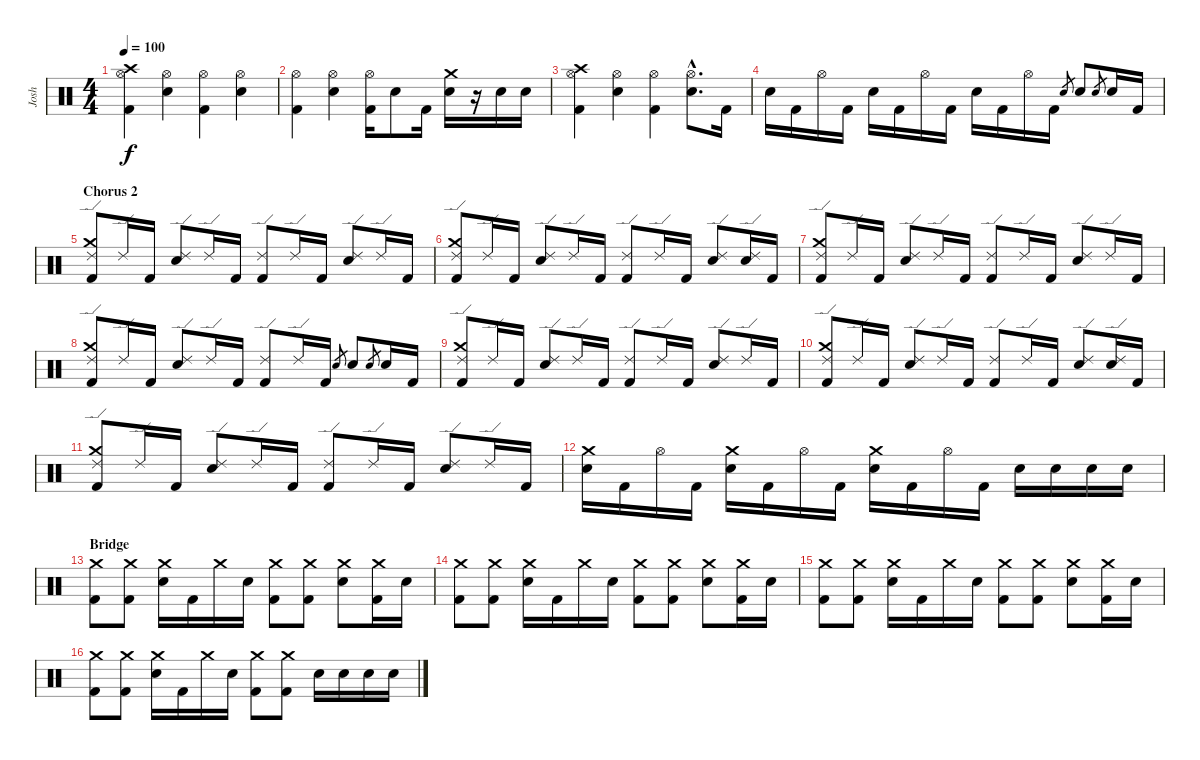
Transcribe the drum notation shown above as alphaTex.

\track ("Josh" "Josh") {instrument percussion}
\staff {score}
\articulation defaults
\ts (4 4)
\tempo 100
\clef neutral
\ks c
("Crash high (hit)" "Hi-Hat (open)" "Kick (hit) 2").4{dy f} ("Hi-Hat (open)" "Electric Snare (hit)").4 ("Hi-Hat (open)" "Kick (hit) 2").4 ("Hi-Hat (open)" "Electric Snare (hit)").4 |
("Hi-Hat (open)" "Kick (hit) 2").4 ("Hi-Hat (open)" "Electric Snare (hit)").4 ("Hi-Hat (open)" "Kick (hit) 2").16 "Electric Snare (hit)".8 "Kick (hit) 2".16 ("Crash medium (hit)" "Electric Snare (hit)").16 r.16 "Electric Snare (hit)".16 "Electric Snare (hit)".16 |
("Crash high (hit)" "Hi-Hat (open)" "Kick (hit) 2").4 ("Hi-Hat (open)" "Electric Snare (hit)").4 ("Hi-Hat (open)" "Kick (hit) 2").4 ("Hi-Hat (open)"{hac} "Electric Snare (hit)"{hac}).8{d} "Kick (hit) 2".16 |
"Electric Snare (hit)".16 "Kick (hit) 2".16 "Hi-Hat (open)".16 "Kick (hit) 2".16 "Electric Snare (hit)".16 "Kick (hit) 2".16 "Hi-Hat (open)".16 "Kick (hit) 2".16 "Electric Snare (hit)".16 "Kick (hit) 2".16 "Hi-Hat (open)".16 "Kick (hit) 2".16 "Electric Snare (hit)".8{gr} "Electric Snare (hit)".8 "Electric Snare (hit)".8{gr} "Electric Snare (hit)".16 "Kick (hit) 2".16 |
\section ("" "Chorus 2 ")
("Crash medium (hit)" "Ride (edge) 2" "Kick (hit) 2").8 "Ride (edge) 2".16 "Kick (hit) 2".16 ("Ride (edge) 2" "Electric Snare (hit)").8 "Ride (edge) 2".16 "Kick (hit) 2".16 ("Ride (edge) 2" "Kick (hit) 2").8 "Ride (edge) 2".16 "Kick (hit) 2".16 ("Ride (edge) 2" "Electric Snare (hit)").8 "Ride (edge) 2".16 "Kick (hit) 2".16 |
("Crash medium (hit)" "Ride (edge) 2" "Kick (hit) 2").8 "Ride (edge) 2".16 "Kick (hit) 2".16 ("Ride (edge) 2" "Electric Snare (hit)").8 "Ride (edge) 2".16 "Kick (hit) 2".16 ("Ride (edge) 2" "Kick (hit) 2").8 "Ride (edge) 2".16 "Kick (hit) 2".16 ("Ride (edge) 2" "Electric Snare (hit)").8 ("Ride (edge) 2" "Electric Snare (hit)").16 "Kick (hit) 2".16 |
("Crash medium (hit)" "Ride (edge) 2" "Kick (hit) 2").8 "Ride (edge) 2".16 "Kick (hit) 2".16 ("Ride (edge) 2" "Electric Snare (hit)").8 "Ride (edge) 2".16 "Kick (hit) 2".16 ("Ride (edge) 2" "Kick (hit) 2").8 "Ride (edge) 2".16 "Kick (hit) 2".16 ("Ride (edge) 2" "Electric Snare (hit)").8 "Ride (edge) 2".16 "Kick (hit) 2".16 |
("Crash medium (hit)" "Ride (edge) 2" "Kick (hit) 2").8 "Ride (edge) 2".16 "Kick (hit) 2".16 ("Ride (edge) 2" "Electric Snare (hit)").8 "Ride (edge) 2".16 "Kick (hit) 2".16 ("Ride (edge) 2" "Kick (hit) 2").8 "Ride (edge) 2".16 "Kick (hit) 2".16 "Electric Snare (hit)".8{gr} "Electric Snare (hit)".8 "Electric Snare (hit)".8{gr} "Electric Snare (hit)".16 "Kick (hit) 2".16 |
("Crash medium (hit)" "Ride (edge) 2" "Kick (hit) 2").8 "Ride (edge) 2".16 "Kick (hit) 2".16 ("Ride (edge) 2" "Electric Snare (hit)").8 "Ride (edge) 2".16 "Kick (hit) 2".16 ("Ride (edge) 2" "Kick (hit) 2").8 "Ride (edge) 2".16 "Kick (hit) 2".16 ("Ride (edge) 2" "Electric Snare (hit)").8 "Ride (edge) 2".16 "Kick (hit) 2".16 |
("Crash medium (hit)" "Ride (edge) 2" "Kick (hit) 2").8 "Ride (edge) 2".16 "Kick (hit) 2".16 ("Ride (edge) 2" "Electric Snare (hit)").8 "Ride (edge) 2".16 "Kick (hit) 2".16 ("Ride (edge) 2" "Kick (hit) 2").8 "Ride (edge) 2".16 "Kick (hit) 2".16 ("Ride (edge) 2" "Electric Snare (hit)").8 ("Ride (edge) 2" "Electric Snare (hit)").16 "Kick (hit) 2".16 |
("Crash medium (hit)" "Ride (edge) 2" "Kick (hit) 2").8 "Ride (edge) 2".16 "Kick (hit) 2".16 ("Ride (edge) 2" "Electric Snare (hit)").8 "Ride (edge) 2".16 "Kick (hit) 2".16 ("Ride (edge) 2" "Kick (hit) 2").8 "Ride (edge) 2".16 "Kick (hit) 2".16 ("Ride (edge) 2" "Electric Snare (hit)").8 "Ride (edge) 2".16 "Kick (hit) 2".16 |
("Crash medium (hit)" "Electric Snare (hit)").16 "Kick (hit) 2".16 "Hi-Hat (open)".16 "Kick (hit) 2".16 ("Crash medium (hit)" "Electric Snare (hit)").16 "Kick (hit) 2".16 "Hi-Hat (open)".16 "Kick (hit) 2".16 ("Crash medium (hit)" "Electric Snare (hit)").16 "Kick (hit) 2".16 "Hi-Hat (open)".16 "Kick (hit) 2".16 "Electric Snare (hit)".16 "Electric Snare (hit)".16 "Electric Snare (hit)".16 "Electric Snare (hit)".16 |
\section ("" "Bridge")
("Crash medium (hit)" "Kick (hit) 2").8 ("Crash medium (hit)" "Kick (hit) 2").8 ("Crash medium (hit)" "Electric Snare (hit)").16 "Kick (hit) 2".16 "Crash medium (hit)".16 "Electric Snare (hit)".16 ("Crash medium (hit)" "Kick (hit) 2").8 ("Crash medium (hit)" "Kick (hit) 2").8 ("Crash medium (hit)" "Electric Snare (hit)").8 ("Crash medium (hit)" "Kick (hit) 2").16 "Electric Snare (hit)".16 |
("Crash medium (hit)" "Kick (hit) 2").8 ("Crash medium (hit)" "Kick (hit) 2").8 ("Crash medium (hit)" "Electric Snare (hit)").16 "Kick (hit) 2".16 "Crash medium (hit)".16 "Electric Snare (hit)".16 ("Crash medium (hit)" "Kick (hit) 2").8 ("Crash medium (hit)" "Kick (hit) 2").8 ("Crash medium (hit)" "Electric Snare (hit)").8 ("Crash medium (hit)" "Kick (hit) 2").16 "Electric Snare (hit)".16 |
("Crash medium (hit)" "Kick (hit) 2").8 ("Crash medium (hit)" "Kick (hit) 2").8 ("Crash medium (hit)" "Electric Snare (hit)").16 "Kick (hit) 2".16 "Crash medium (hit)".16 "Electric Snare (hit)".16 ("Crash medium (hit)" "Kick (hit) 2").8 ("Crash medium (hit)" "Kick (hit) 2").8 ("Crash medium (hit)" "Electric Snare (hit)").8 ("Crash medium (hit)" "Kick (hit) 2").16 "Electric Snare (hit)".16 |
("Crash medium (hit)" "Kick (hit) 2").8 ("Crash medium (hit)" "Kick (hit) 2").8 ("Crash medium (hit)" "Electric Snare (hit)").16 "Kick (hit) 2".16 "Crash medium (hit)".16 "Electric Snare (hit)".16 ("Crash medium (hit)" "Kick (hit) 2").8 ("Crash medium (hit)" "Kick (hit) 2").8 "Electric Snare (hit)".16 "Electric Snare (hit)".16 "Electric Snare (hit)".16 "Electric Snare (hit)".16
